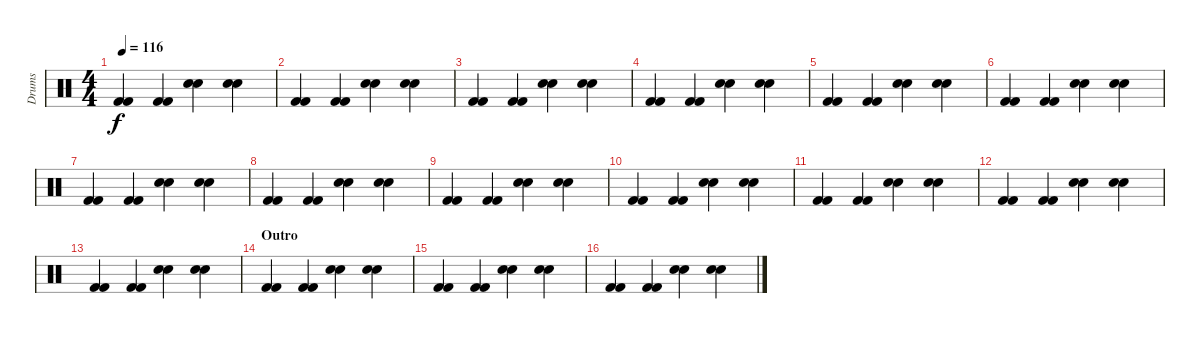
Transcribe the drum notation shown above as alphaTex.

\track ("Drums" "Drums") {instrument percussion}
\staff {score}
\articulation defaults
\ts (4 4)
\tempo 116
\clef neutral
\ks c
("Kick (hit) 2" "Kick (hit) 2").4{dy f} ("Kick (hit) 2" "Kick (hit) 2").4 ("Snare (hit) 2" "Snare (hit) 2").4 ("Snare (hit) 2" "Snare (hit) 2").4 |
("Kick (hit) 2" "Kick (hit) 2").4 ("Kick (hit) 2" "Kick (hit) 2").4 ("Snare (hit) 2" "Snare (hit) 2").4 ("Snare (hit) 2" "Snare (hit) 2").4 |
("Kick (hit) 2" "Kick (hit) 2").4 ("Kick (hit) 2" "Kick (hit) 2").4 ("Snare (hit) 2" "Snare (hit) 2").4 ("Snare (hit) 2" "Snare (hit) 2").4 |
("Kick (hit) 2" "Kick (hit) 2").4 ("Kick (hit) 2" "Kick (hit) 2").4 ("Snare (hit) 2" "Snare (hit) 2").4 ("Snare (hit) 2" "Snare (hit) 2").4 |
("Kick (hit) 2" "Kick (hit) 2").4 ("Kick (hit) 2" "Kick (hit) 2").4 ("Snare (hit) 2" "Snare (hit) 2").4 ("Snare (hit) 2" "Snare (hit) 2").4 |
("Kick (hit) 2" "Kick (hit) 2").4 ("Kick (hit) 2" "Kick (hit) 2").4 ("Snare (hit) 2" "Snare (hit) 2").4 ("Snare (hit) 2" "Snare (hit) 2").4 |
("Kick (hit) 2" "Kick (hit) 2").4 ("Kick (hit) 2" "Kick (hit) 2").4 ("Snare (hit) 2" "Snare (hit) 2").4 ("Snare (hit) 2" "Snare (hit) 2").4 |
("Kick (hit) 2" "Kick (hit) 2").4 ("Kick (hit) 2" "Kick (hit) 2").4 ("Snare (hit) 2" "Snare (hit) 2").4 ("Snare (hit) 2" "Snare (hit) 2").4 |
("Kick (hit) 2" "Kick (hit) 2").4 ("Kick (hit) 2" "Kick (hit) 2").4 ("Snare (hit) 2" "Snare (hit) 2").4 ("Snare (hit) 2" "Snare (hit) 2").4 |
("Kick (hit) 2" "Kick (hit) 2").4 ("Kick (hit) 2" "Kick (hit) 2").4 ("Snare (hit) 2" "Snare (hit) 2").4 ("Snare (hit) 2" "Snare (hit) 2").4 |
("Kick (hit) 2" "Kick (hit) 2").4 ("Kick (hit) 2" "Kick (hit) 2").4 ("Snare (hit) 2" "Snare (hit) 2").4 ("Snare (hit) 2" "Snare (hit) 2").4 |
("Kick (hit) 2" "Kick (hit) 2").4 ("Kick (hit) 2" "Kick (hit) 2").4 ("Snare (hit) 2" "Snare (hit) 2").4 ("Snare (hit) 2" "Snare (hit) 2").4 |
("Kick (hit) 2" "Kick (hit) 2").4 ("Kick (hit) 2" "Kick (hit) 2").4 ("Snare (hit) 2" "Snare (hit) 2").4 ("Snare (hit) 2" "Snare (hit) 2").4 |
\section ("" "Outro")
("Kick (hit) 2" "Kick (hit) 2").4 ("Kick (hit) 2" "Kick (hit) 2").4 ("Snare (hit) 2" "Snare (hit) 2").4 ("Snare (hit) 2" "Snare (hit) 2").4 |
("Kick (hit) 2" "Kick (hit) 2").4 ("Kick (hit) 2" "Kick (hit) 2").4 ("Snare (hit) 2" "Snare (hit) 2").4 ("Snare (hit) 2" "Snare (hit) 2").4 |
("Kick (hit) 2" "Kick (hit) 2").4 ("Kick (hit) 2" "Kick (hit) 2").4 ("Snare (hit) 2" "Snare (hit) 2").4 ("Snare (hit) 2" "Snare (hit) 2").4
